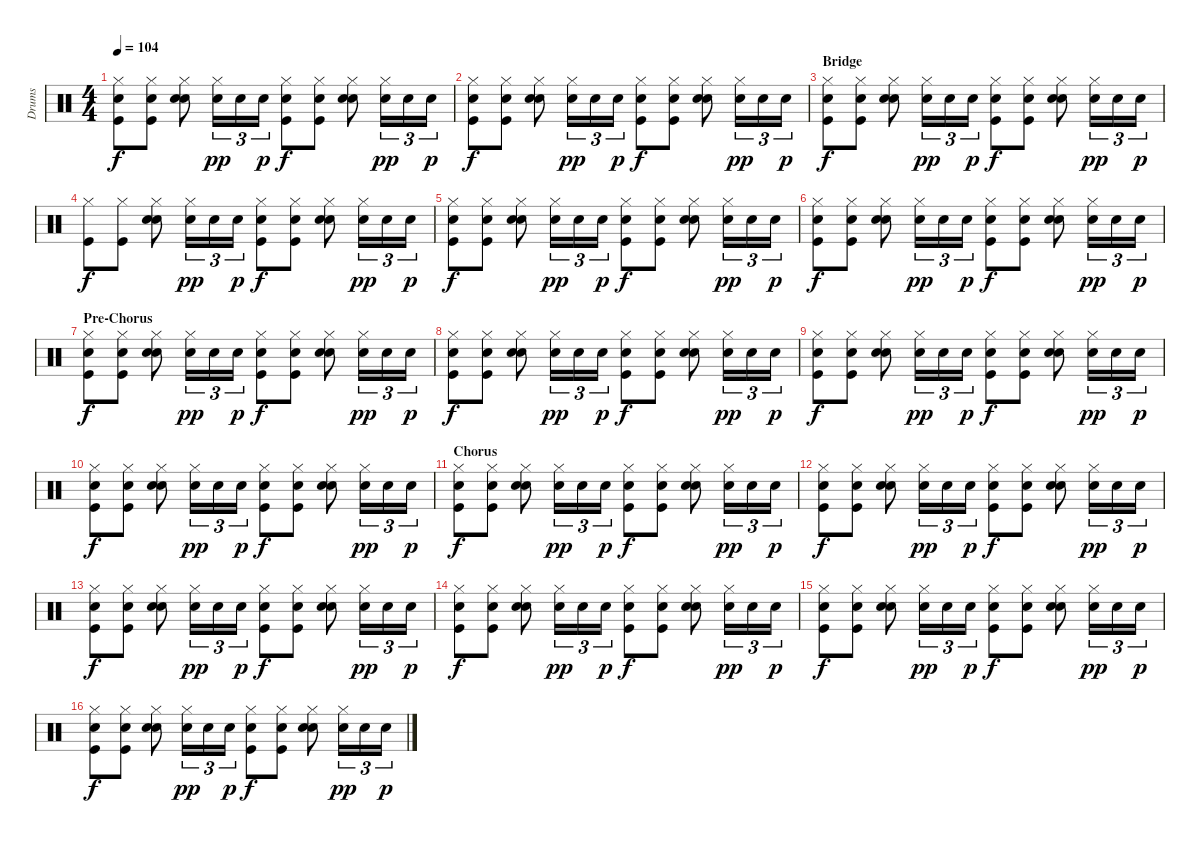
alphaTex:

\track ("Drums" "Drums") {instrument percussion}
\staff {score}
\articulation defaults
\ts (4 4)
\tempo 104
\clef neutral
\ks c
("Hi-Hat (closed)" "Electric Snare (hit)" "Kick (hit)").8{dy f} ("Hi-Hat (closed)" "Electric Snare (hit)" "Kick (hit)").8 ("Hi-Hat (closed)" "Hand Clap (hit)" "Electric Snare (hit)").8 ("Hi-Hat (closed)" "Electric Snare (hit)").16{tu (3 2) dy pp} "Electric Snare (hit)".16{tu (3 2)} "Electric Snare (hit)".16{tu (3 2) dy p} ("Hi-Hat (closed)" "Electric Snare (hit)" "Kick (hit)").8{dy f} ("Hi-Hat (closed)" "Electric Snare (hit)" "Kick (hit)").8 ("Hi-Hat (closed)" "Hand Clap (hit)" "Electric Snare (hit)").8 ("Hi-Hat (closed)" "Electric Snare (hit)").16{tu (3 2) dy pp} "Electric Snare (hit)".16{tu (3 2)} "Electric Snare (hit)".16{tu (3 2) dy p} |
("Hi-Hat (closed)" "Electric Snare (hit)" "Kick (hit)").8{dy f} ("Hi-Hat (closed)" "Electric Snare (hit)" "Kick (hit)").8 ("Hi-Hat (closed)" "Hand Clap (hit)" "Electric Snare (hit)").8 ("Hi-Hat (closed)" "Electric Snare (hit)").16{tu (3 2) dy pp} "Electric Snare (hit)".16{tu (3 2)} "Electric Snare (hit)".16{tu (3 2) dy p} ("Hi-Hat (closed)" "Electric Snare (hit)" "Kick (hit)").8{dy f} ("Hi-Hat (closed)" "Electric Snare (hit)" "Kick (hit)").8 ("Hi-Hat (closed)" "Hand Clap (hit)" "Electric Snare (hit)").8 ("Hi-Hat (closed)" "Electric Snare (hit)").16{tu (3 2) dy pp} "Electric Snare (hit)".16{tu (3 2)} "Electric Snare (hit)".16{tu (3 2) dy p} |
\section ("" "Bridge")
("Hi-Hat (closed)" "Electric Snare (hit)" "Kick (hit)").8{dy f} ("Hi-Hat (closed)" "Electric Snare (hit)" "Kick (hit)").8 ("Hi-Hat (closed)" "Hand Clap (hit)" "Electric Snare (hit)").8 ("Hi-Hat (closed)" "Electric Snare (hit)").16{tu (3 2) dy pp} "Electric Snare (hit)".16{tu (3 2)} "Electric Snare (hit)".16{tu (3 2) dy p} ("Hi-Hat (closed)" "Electric Snare (hit)" "Kick (hit)").8{dy f} ("Hi-Hat (closed)" "Electric Snare (hit)" "Kick (hit)").8 ("Hi-Hat (closed)" "Hand Clap (hit)" "Electric Snare (hit)").8 ("Hi-Hat (closed)" "Electric Snare (hit)").16{tu (3 2) dy pp} "Electric Snare (hit)".16{tu (3 2)} "Electric Snare (hit)".16{tu (3 2) dy p} |
("Hi-Hat (closed)" "Kick (hit)").8{dy f} ("Hi-Hat (closed)" "Kick (hit)").8 ("Hi-Hat (closed)" "Hand Clap (hit)" "Electric Snare (hit)").8 ("Hi-Hat (closed)" "Electric Snare (hit)").16{tu (3 2) dy pp} "Electric Snare (hit)".16{tu (3 2)} "Electric Snare (hit)".16{tu (3 2) dy p} ("Hi-Hat (closed)" "Electric Snare (hit)" "Kick (hit)").8{dy f} ("Hi-Hat (closed)" "Electric Snare (hit)" "Kick (hit)").8 ("Hi-Hat (closed)" "Hand Clap (hit)" "Electric Snare (hit)").8 ("Hi-Hat (closed)" "Electric Snare (hit)").16{tu (3 2) dy pp} "Electric Snare (hit)".16{tu (3 2)} "Electric Snare (hit)".16{tu (3 2) dy p} |
("Hi-Hat (closed)" "Electric Snare (hit)" "Kick (hit)").8{dy f} ("Hi-Hat (closed)" "Electric Snare (hit)" "Kick (hit)").8 ("Hi-Hat (closed)" "Hand Clap (hit)" "Electric Snare (hit)").8 ("Hi-Hat (closed)" "Electric Snare (hit)").16{tu (3 2) dy pp} "Electric Snare (hit)".16{tu (3 2)} "Electric Snare (hit)".16{tu (3 2) dy p} ("Hi-Hat (closed)" "Electric Snare (hit)" "Kick (hit)").8{dy f} ("Hi-Hat (closed)" "Electric Snare (hit)" "Kick (hit)").8 ("Hi-Hat (closed)" "Hand Clap (hit)" "Electric Snare (hit)").8 ("Hi-Hat (closed)" "Electric Snare (hit)").16{tu (3 2) dy pp} "Electric Snare (hit)".16{tu (3 2)} "Electric Snare (hit)".16{tu (3 2) dy p} |
("Hi-Hat (closed)" "Electric Snare (hit)" "Kick (hit)").8{dy f} ("Hi-Hat (closed)" "Electric Snare (hit)" "Kick (hit)").8 ("Hi-Hat (closed)" "Hand Clap (hit)" "Electric Snare (hit)").8 ("Hi-Hat (closed)" "Electric Snare (hit)").16{tu (3 2) dy pp} "Electric Snare (hit)".16{tu (3 2)} "Electric Snare (hit)".16{tu (3 2) dy p} ("Hi-Hat (closed)" "Electric Snare (hit)" "Kick (hit)").8{dy f} ("Hi-Hat (closed)" "Electric Snare (hit)" "Kick (hit)").8 ("Hi-Hat (closed)" "Hand Clap (hit)" "Electric Snare (hit)").8 ("Hi-Hat (closed)" "Electric Snare (hit)").16{tu (3 2) dy pp} "Electric Snare (hit)".16{tu (3 2)} "Electric Snare (hit)".16{tu (3 2) dy p} |
\section ("" "Pre-Chorus")
("Hi-Hat (closed)" "Electric Snare (hit)" "Kick (hit)").8{dy f} ("Hi-Hat (closed)" "Electric Snare (hit)" "Kick (hit)").8 ("Hi-Hat (closed)" "Hand Clap (hit)" "Electric Snare (hit)").8 ("Hi-Hat (closed)" "Electric Snare (hit)").16{tu (3 2) dy pp} "Electric Snare (hit)".16{tu (3 2)} "Electric Snare (hit)".16{tu (3 2) dy p} ("Hi-Hat (closed)" "Electric Snare (hit)" "Kick (hit)").8{dy f} ("Hi-Hat (closed)" "Electric Snare (hit)" "Kick (hit)").8 ("Hi-Hat (closed)" "Hand Clap (hit)" "Electric Snare (hit)").8 ("Hi-Hat (closed)" "Electric Snare (hit)").16{tu (3 2) dy pp} "Electric Snare (hit)".16{tu (3 2)} "Electric Snare (hit)".16{tu (3 2) dy p} |
("Hi-Hat (closed)" "Electric Snare (hit)" "Kick (hit)").8{dy f} ("Hi-Hat (closed)" "Electric Snare (hit)" "Kick (hit)").8 ("Hi-Hat (closed)" "Hand Clap (hit)" "Electric Snare (hit)").8 ("Hi-Hat (closed)" "Electric Snare (hit)").16{tu (3 2) dy pp} "Electric Snare (hit)".16{tu (3 2)} "Electric Snare (hit)".16{tu (3 2) dy p} ("Hi-Hat (closed)" "Electric Snare (hit)" "Kick (hit)").8{dy f} ("Hi-Hat (closed)" "Electric Snare (hit)" "Kick (hit)").8 ("Hi-Hat (closed)" "Hand Clap (hit)" "Electric Snare (hit)").8 ("Hi-Hat (closed)" "Electric Snare (hit)").16{tu (3 2) dy pp} "Electric Snare (hit)".16{tu (3 2)} "Electric Snare (hit)".16{tu (3 2) dy p} |
("Hi-Hat (closed)" "Electric Snare (hit)" "Kick (hit)").8{dy f} ("Hi-Hat (closed)" "Electric Snare (hit)" "Kick (hit)").8 ("Hi-Hat (closed)" "Hand Clap (hit)" "Electric Snare (hit)").8 ("Hi-Hat (closed)" "Electric Snare (hit)").16{tu (3 2) dy pp} "Electric Snare (hit)".16{tu (3 2)} "Electric Snare (hit)".16{tu (3 2) dy p} ("Hi-Hat (closed)" "Electric Snare (hit)" "Kick (hit)").8{dy f} ("Hi-Hat (closed)" "Electric Snare (hit)" "Kick (hit)").8 ("Hi-Hat (closed)" "Hand Clap (hit)" "Electric Snare (hit)").8 ("Hi-Hat (closed)" "Electric Snare (hit)").16{tu (3 2) dy pp} "Electric Snare (hit)".16{tu (3 2)} "Electric Snare (hit)".16{tu (3 2) dy p} |
("Hi-Hat (closed)" "Electric Snare (hit)" "Kick (hit)").8{dy f} ("Hi-Hat (closed)" "Electric Snare (hit)" "Kick (hit)").8 ("Hi-Hat (closed)" "Hand Clap (hit)" "Electric Snare (hit)").8 ("Hi-Hat (closed)" "Electric Snare (hit)").16{tu (3 2) dy pp} "Electric Snare (hit)".16{tu (3 2)} "Electric Snare (hit)".16{tu (3 2) dy p} ("Hi-Hat (closed)" "Electric Snare (hit)" "Kick (hit)").8{dy f} ("Hi-Hat (closed)" "Electric Snare (hit)" "Kick (hit)").8 ("Hi-Hat (closed)" "Hand Clap (hit)" "Electric Snare (hit)").8 ("Hi-Hat (closed)" "Electric Snare (hit)").16{tu (3 2) dy pp} "Electric Snare (hit)".16{tu (3 2)} "Electric Snare (hit)".16{tu (3 2) dy p} |
\section ("" "Chorus")
("Hi-Hat (closed)" "Electric Snare (hit)" "Kick (hit)").8{dy f} ("Hi-Hat (closed)" "Electric Snare (hit)" "Kick (hit)").8 ("Hi-Hat (closed)" "Hand Clap (hit)" "Electric Snare (hit)").8 ("Hi-Hat (closed)" "Electric Snare (hit)").16{tu (3 2) dy pp} "Electric Snare (hit)".16{tu (3 2)} "Electric Snare (hit)".16{tu (3 2) dy p} ("Hi-Hat (closed)" "Electric Snare (hit)" "Kick (hit)").8{dy f} ("Hi-Hat (closed)" "Electric Snare (hit)" "Kick (hit)").8 ("Hi-Hat (closed)" "Hand Clap (hit)" "Electric Snare (hit)").8 ("Hi-Hat (closed)" "Electric Snare (hit)").16{tu (3 2) dy pp} "Electric Snare (hit)".16{tu (3 2)} "Electric Snare (hit)".16{tu (3 2) dy p} |
("Hi-Hat (closed)" "Electric Snare (hit)" "Kick (hit)").8{dy f} ("Hi-Hat (closed)" "Electric Snare (hit)" "Kick (hit)").8 ("Hi-Hat (closed)" "Hand Clap (hit)" "Electric Snare (hit)").8 ("Hi-Hat (closed)" "Electric Snare (hit)").16{tu (3 2) dy pp} "Electric Snare (hit)".16{tu (3 2)} "Electric Snare (hit)".16{tu (3 2) dy p} ("Hi-Hat (closed)" "Electric Snare (hit)" "Kick (hit)").8{dy f} ("Hi-Hat (closed)" "Electric Snare (hit)" "Kick (hit)").8 ("Hi-Hat (closed)" "Hand Clap (hit)" "Electric Snare (hit)").8 ("Hi-Hat (closed)" "Electric Snare (hit)").16{tu (3 2) dy pp} "Electric Snare (hit)".16{tu (3 2)} "Electric Snare (hit)".16{tu (3 2) dy p} |
("Hi-Hat (closed)" "Electric Snare (hit)" "Kick (hit)").8{dy f} ("Hi-Hat (closed)" "Electric Snare (hit)" "Kick (hit)").8 ("Hi-Hat (closed)" "Hand Clap (hit)" "Electric Snare (hit)").8 ("Hi-Hat (closed)" "Electric Snare (hit)").16{tu (3 2) dy pp} "Electric Snare (hit)".16{tu (3 2)} "Electric Snare (hit)".16{tu (3 2) dy p} ("Hi-Hat (closed)" "Electric Snare (hit)" "Kick (hit)").8{dy f} ("Hi-Hat (closed)" "Electric Snare (hit)" "Kick (hit)").8 ("Hi-Hat (closed)" "Hand Clap (hit)" "Electric Snare (hit)").8 ("Hi-Hat (closed)" "Electric Snare (hit)").16{tu (3 2) dy pp} "Electric Snare (hit)".16{tu (3 2)} "Electric Snare (hit)".16{tu (3 2) dy p} |
("Hi-Hat (closed)" "Electric Snare (hit)" "Kick (hit)").8{dy f} ("Hi-Hat (closed)" "Electric Snare (hit)" "Kick (hit)").8 ("Hi-Hat (closed)" "Hand Clap (hit)" "Electric Snare (hit)").8 ("Hi-Hat (closed)" "Electric Snare (hit)").16{tu (3 2) dy pp} "Electric Snare (hit)".16{tu (3 2)} "Electric Snare (hit)".16{tu (3 2) dy p} ("Hi-Hat (closed)" "Electric Snare (hit)" "Kick (hit)").8{dy f} ("Hi-Hat (closed)" "Electric Snare (hit)" "Kick (hit)").8 ("Hi-Hat (closed)" "Hand Clap (hit)" "Electric Snare (hit)").8 ("Hi-Hat (closed)" "Electric Snare (hit)").16{tu (3 2) dy pp} "Electric Snare (hit)".16{tu (3 2)} "Electric Snare (hit)".16{tu (3 2) dy p} |
("Hi-Hat (closed)" "Electric Snare (hit)" "Kick (hit)").8{dy f} ("Hi-Hat (closed)" "Electric Snare (hit)" "Kick (hit)").8 ("Hi-Hat (closed)" "Hand Clap (hit)" "Electric Snare (hit)").8 ("Hi-Hat (closed)" "Electric Snare (hit)").16{tu (3 2) dy pp} "Electric Snare (hit)".16{tu (3 2)} "Electric Snare (hit)".16{tu (3 2) dy p} ("Hi-Hat (closed)" "Electric Snare (hit)" "Kick (hit)").8{dy f} ("Hi-Hat (closed)" "Electric Snare (hit)" "Kick (hit)").8 ("Hi-Hat (closed)" "Hand Clap (hit)" "Electric Snare (hit)").8 ("Hi-Hat (closed)" "Electric Snare (hit)").16{tu (3 2) dy pp} "Electric Snare (hit)".16{tu (3 2)} "Electric Snare (hit)".16{tu (3 2) dy p} |
("Hi-Hat (closed)" "Electric Snare (hit)" "Kick (hit)").8{dy f} ("Hi-Hat (closed)" "Electric Snare (hit)" "Kick (hit)").8 ("Hi-Hat (closed)" "Hand Clap (hit)" "Electric Snare (hit)").8 ("Hi-Hat (closed)" "Electric Snare (hit)").16{tu (3 2) dy pp} "Electric Snare (hit)".16{tu (3 2)} "Electric Snare (hit)".16{tu (3 2) dy p} ("Hi-Hat (closed)" "Electric Snare (hit)" "Kick (hit)").8{dy f} ("Hi-Hat (closed)" "Electric Snare (hit)" "Kick (hit)").8 ("Hi-Hat (closed)" "Hand Clap (hit)" "Electric Snare (hit)").8 ("Hi-Hat (closed)" "Electric Snare (hit)").16{tu (3 2) dy pp} "Electric Snare (hit)".16{tu (3 2)} "Electric Snare (hit)".16{tu (3 2) dy p}
